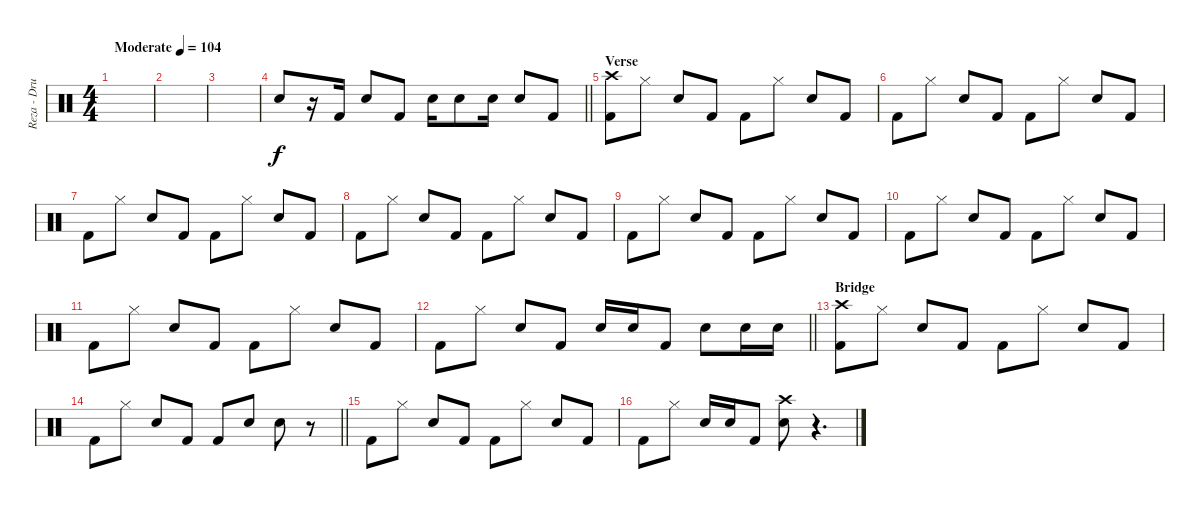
\track ("Reza - Drums" "Reza - Dru") {instrument percussion}
\staff {score}
\articulation defaults
\ts (4 4)
\tempo (104 "Moderate")
\clef neutral
\ks c
|
|
|
\barLineRight lightlight "Snare (hit) 2".8
r.16 "Kick (hit) 2".16 "Snare (hit) 2".8 "Kick (hit) 2".8 "Snare (hit) 2".16 "Snare (hit) 2".8 "Snare (hit) 2".16 "Snare (hit) 2".8 "Kick (hit) 2".8 |
\section ("" "Verse")
("Kick (hit) 2" "Crash high (hit)").8 "Hi-Hat (closed)".8 "Snare (hit) 2".8 "Kick (hit) 2".8 "Kick (hit) 2".8 "Hi-Hat (closed)".8 "Snare (hit) 2".8 "Kick (hit) 2".8 |
"Kick (hit) 2".8 "Hi-Hat (closed)".8 "Snare (hit) 2".8 "Kick (hit) 2".8 "Kick (hit) 2".8 "Hi-Hat (closed)".8 "Snare (hit) 2".8 "Kick (hit) 2".8 |
"Kick (hit) 2".8 "Hi-Hat (closed)".8 "Snare (hit) 2".8 "Kick (hit) 2".8 "Kick (hit) 2".8 "Hi-Hat (closed)".8 "Snare (hit) 2".8 "Kick (hit) 2".8 |
"Kick (hit) 2".8 "Hi-Hat (closed)".8 "Snare (hit) 2".8 "Kick (hit) 2".8 "Kick (hit) 2".8 "Hi-Hat (closed)".8 "Snare (hit) 2".8 "Kick (hit) 2".8 |
"Kick (hit) 2".8 "Hi-Hat (closed)".8 "Snare (hit) 2".8 "Kick (hit) 2".8 "Kick (hit) 2".8 "Hi-Hat (closed)".8 "Snare (hit) 2".8 "Kick (hit) 2".8 |
"Kick (hit) 2".8 "Hi-Hat (closed)".8 "Snare (hit) 2".8 "Kick (hit) 2".8 "Kick (hit) 2".8 "Hi-Hat (closed)".8 "Snare (hit) 2".8 "Kick (hit) 2".8 |
"Kick (hit) 2".8 "Hi-Hat (closed)".8 "Snare (hit) 2".8 "Kick (hit) 2".8 "Kick (hit) 2".8 "Hi-Hat (closed)".8 "Snare (hit) 2".8 "Kick (hit) 2".8 |
\barLineRight lightlight "Kick (hit) 2".8 "Hi-Hat (closed)".8 "Snare (hit) 2".8 "Kick (hit) 2".8 "Snare (hit) 2".16 "Snare (hit) 2".16 "Kick (hit) 2".8 "Snare (hit) 2".8 "Snare (hit) 2".16 "Snare (hit) 2".16
|
\section ("" "Bridge")
("Kick (hit) 2" "Crash high (hit)").8 "Hi-Hat (closed)".8 "Snare (hit) 2".8 "Kick (hit) 2".8 "Kick (hit) 2".8 "Hi-Hat (closed)".8 "Snare (hit) 2".8 "Kick (hit) 2".8 |
\barLineRight lightlight "Kick (hit) 2".8 "Hi-Hat (closed)".8 "Snare (hit) 2".8 "Kick (hit) 2".8 "Kick (hit) 2".8 "Snare (hit) 2".8 "Snare (hit) 2".8
r.8 |
"Kick (hit) 2".8 "Hi-Hat (closed)".8 "Snare (hit) 2".8 "Kick (hit) 2".8 "Kick (hit) 2".8 "Hi-Hat (closed)".8 "Snare (hit) 2".8 "Kick (hit) 2".8 |
"Kick (hit) 2".8 "Hi-Hat (closed)".8 "Snare (hit) 2".16 "Snare (hit) 2".16 "Kick (hit) 2".8 ("Snare (hit) 2" "Crash high (hit)").8 r.4{d}
